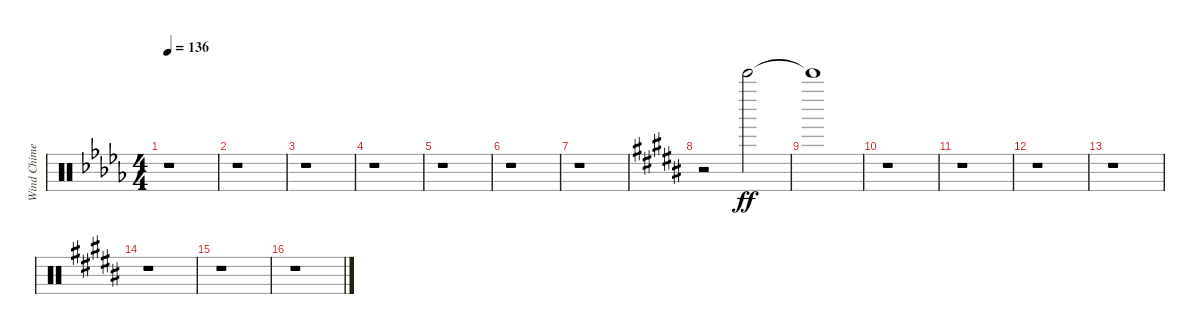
\track ("Wind Chimes" "Wind Chime") {instrument percussion}
\staff {score}
\articulation defaults
\ts (4 4)
\tempo 136
\clef neutral
\ks db
r.1{dy ff} |
r.1 |
r.1 |
r.1 |
r.1 |
r.1 |
r.1 |
\ks b
r.2 "Bell Tree (hit)".2 |
"Bell Tree (hit)"{t}.1 |
r.1 |
r.1 |
r.1 |
r.1 |
r.1 |
r.1 |
r.1
